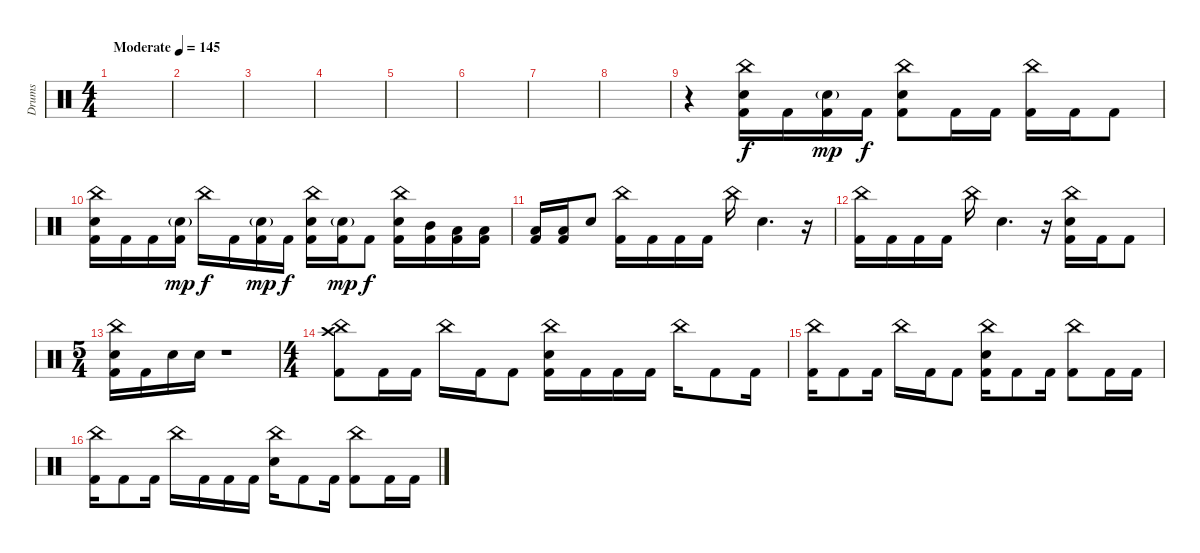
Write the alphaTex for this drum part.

\track ("Drums" "Drums") {instrument percussion}
\staff {score}
\articulation defaults
\ts (4 4)
\tempo (145 "Moderate")
\clef neutral
\ks c
|
|
|
|
|
|
|
|
r.4 ("China (hit)" "Snare (hit) 2" "Kick (hit) 2").16 "Kick (hit) 2".16 ("Snare (hit) 2"{g} "Kick (hit) 2").16{dy mp} "Kick (hit) 2".16{dy f} ("China (hit)" "Snare (hit) 2" "Kick (hit) 2").8 "Kick (hit) 2".16 "Kick (hit) 2".16 ("China (hit)" "Kick (hit) 2").16 "Kick (hit) 2".16 "Kick (hit) 2".8 |
("China (hit)" "Snare (hit) 2" "Kick (hit) 2").16 "Kick (hit) 2".16 "Kick (hit) 2".16 ("Snare (hit) 2"{g} "Kick (hit) 2").16{dy mp} "China (hit)".16{dy f} "Kick (hit) 2".16 ("Snare (hit) 2"{g} "Kick (hit) 2").16{dy mp} "Kick (hit) 2".16{dy f} ("China (hit)" "Snare (hit) 2" "Kick (hit) 2").16 ("Snare (hit) 2"{g} "Kick (hit) 2").16{dy mp} "Kick (hit) 2".8{dy f} ("China (hit)" "Snare (hit) 2" "Kick (hit) 2").16 ("Mid Tom (hit)" "Kick (hit) 2").16 ("Low Tom (hit)" "Kick (hit) 2").16 ("Low Tom (hit)" "Kick (hit) 2").16 |
("Low Floor Tom (hit)" "Kick (hit) 2").16 ("Low Floor Tom (hit)" "Kick (hit) 2").16 "Snare (hit) 2".8 ("China (hit)" "Kick (hit) 2").16 "Kick (hit) 2".16 "Kick (hit) 2".16 "Kick (hit) 2".16 "China (hit)".16 "Snare (hit) 2".4{d} r.16 |
("China (hit)" "Kick (hit) 2").16 "Kick (hit) 2".16 "Kick (hit) 2".16 "Kick (hit) 2".16 "China (hit)".16 "Snare (hit) 2".4{d} r.16 ("China (hit)" "Snare (hit) 2" "Kick (hit) 2").16 "Kick (hit) 2".16 "Kick (hit) 2".8 |
\ts (5 4)
("China (hit)" "Snare (hit) 2" "Kick (hit) 2").16 "Kick (hit) 2".16 "Snare (hit) 2".16 "Snare (hit) 2".16 r.1 |
\ts (4 4)
("China (hit)" "Crash high (hit)" "Kick (hit) 2").8 "Kick (hit) 2".16 "Kick (hit) 2".16 "China (hit)".16 "Kick (hit) 2".16 "Kick (hit) 2".8 ("China (hit)" "Snare (hit) 2" "Kick (hit) 2").16 "Kick (hit) 2".16 "Kick (hit) 2".16 "Kick (hit) 2".16 "China (hit)".16 "Kick (hit) 2".8 "Kick (hit) 2".16 |
("China (hit)" "Kick (hit) 2").16 "Kick (hit) 2".8 "Kick (hit) 2".16 "China (hit)".16 "Kick (hit) 2".16 "Kick (hit) 2".8 ("China (hit)" "Snare (hit) 2" "Kick (hit) 2").16 "Kick (hit) 2".8 "Kick (hit) 2".16 ("China (hit)" "Kick (hit) 2").8 "Kick (hit) 2".16 "Kick (hit) 2".16 |
("China (hit)" "Kick (hit) 2").16 "Kick (hit) 2".8 "Kick (hit) 2".16 "China (hit)".16 "Kick (hit) 2".16 "Kick (hit) 2".16 "Kick (hit) 2".16 ("China (hit)" "Snare (hit) 2").16 "Kick (hit) 2".8 "Kick (hit) 2".16 ("China (hit)" "Kick (hit) 2").8 "Kick (hit) 2".16 "Kick (hit) 2".16
